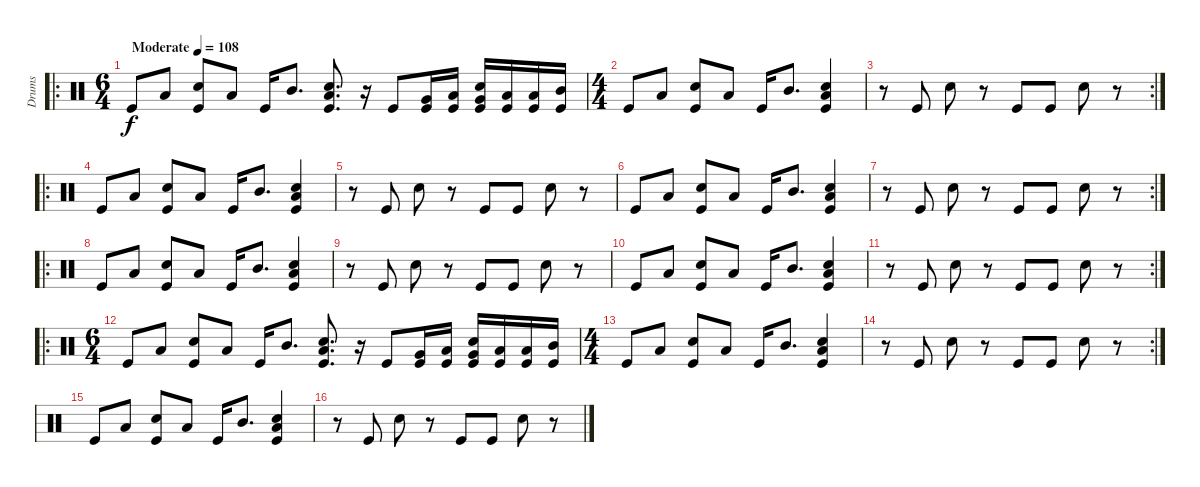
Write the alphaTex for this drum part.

\track ("Drums" "Drums") {instrument percussion}
\staff {score}
\articulation defaults
\ro
\ts (6 4)
\tempo (108 "Moderate")
\clef neutral
\ks c "Kick (hit)".8{dy f} "Low Tom (hit)".8
("Snare (hit) 2" "Kick (hit)").8 "Low Tom (hit)".8 "Kick (hit)".16 "Mid Tom (hit)".8{d} ("Low Tom (hit)" "Snare (hit) 2" "Kick (hit)").8{d} r.16 "Kick (hit)".8 ("Very Low Tom (hit)" "Kick (hit)").16 ("Low Tom (hit)" "Kick (hit)").16 ("Very Low Tom (hit)" "Snare (hit) 2" "Kick (hit)").16 ("Low Floor Tom (hit)" "Kick (hit)").16 ("Low Tom (hit)" "Kick (hit)").16 ("Mid Tom (hit)" "Kick (hit)").16 |
\ts (4 4)
"Kick (hit)".8 "Low Tom (hit)".8 ("Snare (hit) 2" "Kick (hit)").8 "Low Tom (hit)".8 "Kick (hit)".16 "Mid Tom (hit)".8{d} ("Low Tom (hit)" "Snare (hit) 2" "Kick (hit)").4 |
\rc 2
r.8 "Kick (hit)".8 "Snare (hit) 2".8 r.8 "Kick (hit)".8 "Kick (hit)".8 "Snare (hit) 2".8 r.8 |
\ro "Kick (hit)".8 "Low Tom (hit)".8
("Snare (hit) 2" "Kick (hit)").8 "Low Tom (hit)".8 "Kick (hit)".16 "Mid Tom (hit)".8{d} ("Low Tom (hit)" "Snare (hit) 2" "Kick (hit)").4 |
r.8 "Kick (hit)".8 "Snare (hit) 2".8 r.8 "Kick (hit)".8 "Kick (hit)".8 "Snare (hit) 2".8 r.8 |
"Kick (hit)".8 "Low Tom (hit)".8 ("Snare (hit) 2" "Kick (hit)").8 "Low Tom (hit)".8 "Kick (hit)".16 "Mid Tom (hit)".8{d} ("Low Tom (hit)" "Snare (hit) 2" "Kick (hit)").4 |
\rc 2
r.8 "Kick (hit)".8 "Snare (hit) 2".8 r.8 "Kick (hit)".8 "Kick (hit)".8 "Snare (hit) 2".8 r.8 |
\ro "Kick (hit)".8 "Low Tom (hit)".8
("Snare (hit) 2" "Kick (hit)").8 "Low Tom (hit)".8 "Kick (hit)".16 "Mid Tom (hit)".8{d} ("Low Tom (hit)" "Snare (hit) 2" "Kick (hit)").4 |
r.8 "Kick (hit)".8 "Snare (hit) 2".8 r.8 "Kick (hit)".8 "Kick (hit)".8 "Snare (hit) 2".8 r.8 |
"Kick (hit)".8 "Low Tom (hit)".8 ("Snare (hit) 2" "Kick (hit)").8 "Low Tom (hit)".8 "Kick (hit)".16 "Mid Tom (hit)".8{d} ("Low Tom (hit)" "Snare (hit) 2" "Kick (hit)").4 |
\rc 2
r.8 "Kick (hit)".8 "Snare (hit) 2".8 r.8 "Kick (hit)".8 "Kick (hit)".8 "Snare (hit) 2".8 r.8 |
\ro
\ts (6 4)
"Kick (hit)".8 "Low Tom (hit)".8 ("Snare (hit) 2" "Kick (hit)").8 "Low Tom (hit)".8 "Kick (hit)".16 "Mid Tom (hit)".8{d} ("Low Tom (hit)" "Snare (hit) 2" "Kick (hit)").8{d} r.16 "Kick (hit)".8 ("Very Low Tom (hit)" "Kick (hit)").16 ("Low Tom (hit)" "Kick (hit)").16 ("Very Low Tom (hit)" "Snare (hit) 2" "Kick (hit)").16 ("Low Floor Tom (hit)" "Kick (hit)").16 ("Low Tom (hit)" "Kick (hit)").16 ("Mid Tom (hit)" "Kick (hit)").16 |
\ts (4 4)
"Kick (hit)".8 "Low Tom (hit)".8 ("Snare (hit) 2" "Kick (hit)").8 "Low Tom (hit)".8 "Kick (hit)".16 "Mid Tom (hit)".8{d} ("Low Tom (hit)" "Snare (hit) 2" "Kick (hit)").4 |
\rc 2
r.8 "Kick (hit)".8 "Snare (hit) 2".8 r.8 "Kick (hit)".8 "Kick (hit)".8 "Snare (hit) 2".8 r.8 |
"Kick (hit)".8 "Low Tom (hit)".8 ("Snare (hit) 2" "Kick (hit)").8 "Low Tom (hit)".8 "Kick (hit)".16 "Mid Tom (hit)".8{d} ("Low Tom (hit)" "Snare (hit) 2" "Kick (hit)").4 |
r.8 "Kick (hit)".8 "Snare (hit) 2".8 r.8 "Kick (hit)".8 "Kick (hit)".8 "Snare (hit) 2".8 r.8
